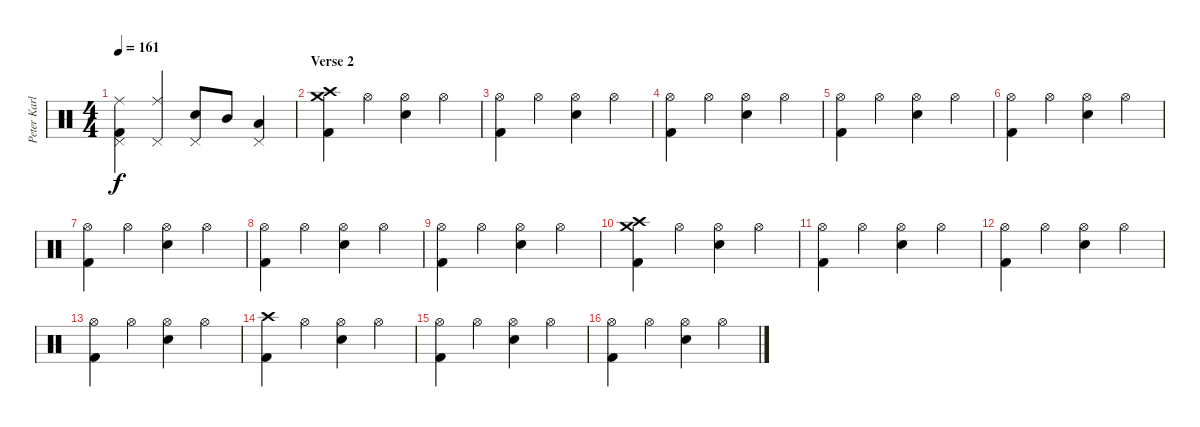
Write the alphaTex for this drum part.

\track ("Peter Karlsson" "Peter Karl") {instrument percussion}
\staff {score}
\articulation defaults
\ts (4 4)
\tempo 161
\clef neutral
\ks c
("Ride (middle)" "Pedal Hi-Hat (hit)" "Kick (hit) 2").4{dy f} ("Ride (middle)" "Pedal Hi-Hat (hit)").4 ("Snare (hit) 2" "Pedal Hi-Hat (hit)").8 "Mid Tom (hit)".8 ("Low Tom (hit)" "Pedal Hi-Hat (hit)").4 |
\section ("" "Verse 2")
("Crash high (hit)" "Crash medium (hit)" "Kick (hit) 2").4 "Hi-Hat (open)".4 ("Hi-Hat (open)" "Snare (hit) 2").4 "Hi-Hat (open)".4 |
("Hi-Hat (open)" "Kick (hit) 2").4 "Hi-Hat (open)".4 ("Hi-Hat (open)" "Snare (hit) 2").4 "Hi-Hat (open)".4 |
("Hi-Hat (open)" "Kick (hit) 2").4 "Hi-Hat (open)".4 ("Hi-Hat (open)" "Snare (hit) 2").4 "Hi-Hat (open)".4 |
("Hi-Hat (open)" "Kick (hit) 2").4 "Hi-Hat (open)".4 ("Hi-Hat (open)" "Snare (hit) 2").4 "Hi-Hat (open)".4 |
("Hi-Hat (open)" "Kick (hit) 2").4 "Hi-Hat (open)".4 ("Hi-Hat (open)" "Snare (hit) 2").4 "Hi-Hat (open)".4 |
("Hi-Hat (open)" "Kick (hit) 2").4 "Hi-Hat (open)".4 ("Hi-Hat (open)" "Snare (hit) 2").4 "Hi-Hat (open)".4 |
("Hi-Hat (open)" "Kick (hit) 2").4 "Hi-Hat (open)".4 ("Hi-Hat (open)" "Snare (hit) 2").4 "Hi-Hat (open)".4 |
("Hi-Hat (open)" "Kick (hit) 2").4 "Hi-Hat (open)".4 ("Hi-Hat (open)" "Snare (hit) 2").4 "Hi-Hat (open)".4 |
("Crash high (hit)" "Crash medium (hit)" "Kick (hit) 2").4 "Hi-Hat (open)".4 ("Hi-Hat (open)" "Snare (hit) 2").4 "Hi-Hat (open)".4 |
("Hi-Hat (open)" "Kick (hit) 2").4 "Hi-Hat (open)".4 ("Hi-Hat (open)" "Snare (hit) 2").4 "Hi-Hat (open)".4 |
("Hi-Hat (open)" "Kick (hit) 2").4 "Hi-Hat (open)".4 ("Hi-Hat (open)" "Snare (hit) 2").4 "Hi-Hat (open)".4 |
("Hi-Hat (open)" "Kick (hit) 2").4 "Hi-Hat (open)".4 ("Hi-Hat (open)" "Snare (hit) 2").4 "Hi-Hat (open)".4 |
("Crash high (hit)" "Kick (hit) 2").4 "Hi-Hat (open)".4 ("Hi-Hat (open)" "Snare (hit) 2").4 "Hi-Hat (open)".4 |
("Hi-Hat (open)" "Kick (hit) 2").4 "Hi-Hat (open)".4 ("Hi-Hat (open)" "Snare (hit) 2").4 "Hi-Hat (open)".4 |
("Hi-Hat (open)" "Kick (hit) 2").4 "Hi-Hat (open)".4 ("Hi-Hat (open)" "Snare (hit) 2").4 "Hi-Hat (open)".4
